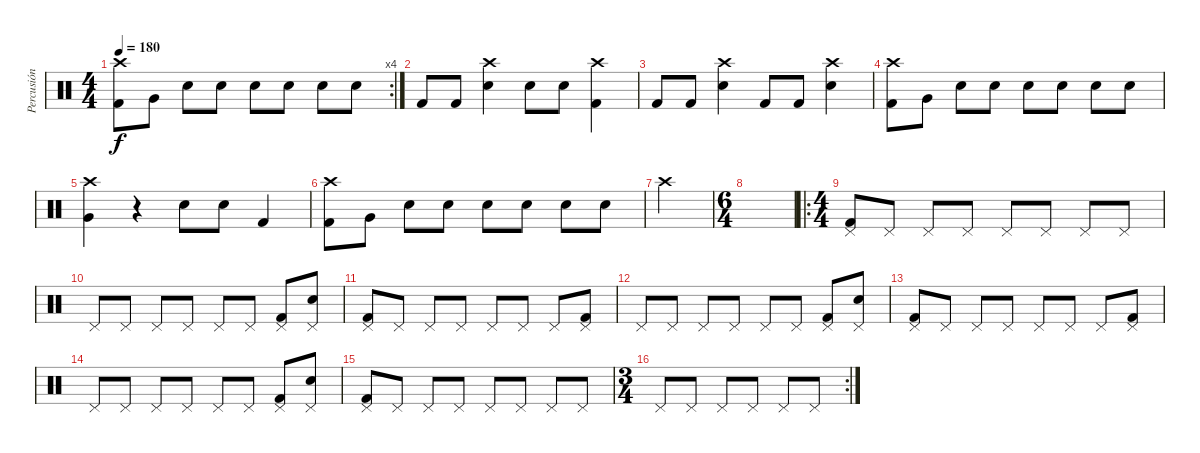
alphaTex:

\track ("Percusión" "Percusión") {instrument percussion}
\staff {score}
\articulation defaults
\rc 4
\ts (4 4)
\tempo 180
\clef neutral
\ks c
("Kick (hit) 2" "Crash high (hit)").8{dy f} "Very Low Tom (hit)".8 "Electric Snare (hit)".8 "Electric Snare (hit)".8 "Electric Snare (hit)".8 "Electric Snare (hit)".8 "Electric Snare (hit)".8 "Electric Snare (hit)".8 |
"Kick (hit) 2".8 "Kick (hit) 2".8 ("Electric Snare (hit)" "Crash high (hit)").4 "Electric Snare (hit)".8 "Electric Snare (hit)".8 ("Kick (hit) 2" "Crash high (hit)").4 |
"Kick (hit) 2".8 "Kick (hit) 2".8 ("Electric Snare (hit)" "Crash high (hit)").4 "Kick (hit) 2".8 "Kick (hit) 2".8 ("Electric Snare (hit)" "Crash high (hit)").4 |
("Kick (hit) 2" "Crash high (hit)").8 "Very Low Tom (hit)".8 "Electric Snare (hit)".8 "Electric Snare (hit)".8 "Electric Snare (hit)".8 "Electric Snare (hit)".8 "Electric Snare (hit)".8 "Electric Snare (hit)".8 |
("Very Low Tom (hit)" "Crash high (hit)").4 r.4 "Electric Snare (hit)".8 "Electric Snare (hit)".8 "Kick (hit) 2".4 |
("Kick (hit) 2" "Crash high (hit)").8 "Very Low Tom (hit)".8 "Electric Snare (hit)".8 "Electric Snare (hit)".8 "Electric Snare (hit)".8 "Electric Snare (hit)".8 "Electric Snare (hit)".8 "Electric Snare (hit)".8 |
"Crash high (hit)".4 |
\ts (6 4)
|
\ro
\ts (4 4)
("Pedal Hi-Hat (hit)" "Kick (hit) 2").8 "Pedal Hi-Hat (hit)".8 "Pedal Hi-Hat (hit)".8 "Pedal Hi-Hat (hit)".8 "Pedal Hi-Hat (hit)".8 "Pedal Hi-Hat (hit)".8 "Pedal Hi-Hat (hit)".8 "Pedal Hi-Hat (hit)".8 |
"Pedal Hi-Hat (hit)".8 "Pedal Hi-Hat (hit)".8 "Pedal Hi-Hat (hit)".8 "Pedal Hi-Hat (hit)".8 "Pedal Hi-Hat (hit)".8 "Pedal Hi-Hat (hit)".8 ("Pedal Hi-Hat (hit)" "Kick (hit) 2").8 ("Pedal Hi-Hat (hit)" "Electric Snare (hit)").8 |
("Pedal Hi-Hat (hit)" "Kick (hit) 2").8 "Pedal Hi-Hat (hit)".8 "Pedal Hi-Hat (hit)".8 "Pedal Hi-Hat (hit)".8 "Pedal Hi-Hat (hit)".8 "Pedal Hi-Hat (hit)".8 "Pedal Hi-Hat (hit)".8 ("Pedal Hi-Hat (hit)" "Kick (hit) 2").8 |
"Pedal Hi-Hat (hit)".8 "Pedal Hi-Hat (hit)".8 "Pedal Hi-Hat (hit)".8 "Pedal Hi-Hat (hit)".8 "Pedal Hi-Hat (hit)".8 "Pedal Hi-Hat (hit)".8 ("Pedal Hi-Hat (hit)" "Kick (hit) 2").8 ("Pedal Hi-Hat (hit)" "Electric Snare (hit)").8 |
("Pedal Hi-Hat (hit)" "Kick (hit) 2").8 "Pedal Hi-Hat (hit)".8 "Pedal Hi-Hat (hit)".8 "Pedal Hi-Hat (hit)".8 "Pedal Hi-Hat (hit)".8 "Pedal Hi-Hat (hit)".8 "Pedal Hi-Hat (hit)".8 ("Pedal Hi-Hat (hit)" "Kick (hit) 2").8 |
"Pedal Hi-Hat (hit)".8 "Pedal Hi-Hat (hit)".8 "Pedal Hi-Hat (hit)".8 "Pedal Hi-Hat (hit)".8 "Pedal Hi-Hat (hit)".8 "Pedal Hi-Hat (hit)".8 ("Pedal Hi-Hat (hit)" "Kick (hit) 2").8 ("Pedal Hi-Hat (hit)" "Electric Snare (hit)").8 |
("Pedal Hi-Hat (hit)" "Kick (hit) 2").8 "Pedal Hi-Hat (hit)".8 "Pedal Hi-Hat (hit)".8 "Pedal Hi-Hat (hit)".8 "Pedal Hi-Hat (hit)".8 "Pedal Hi-Hat (hit)".8 "Pedal Hi-Hat (hit)".8 "Pedal Hi-Hat (hit)".8 |
\rc 2
\ts (3 4)
"Pedal Hi-Hat (hit)".8 "Pedal Hi-Hat (hit)".8 "Pedal Hi-Hat (hit)".8 "Pedal Hi-Hat (hit)".8 "Pedal Hi-Hat (hit)".8 "Pedal Hi-Hat (hit)".8
